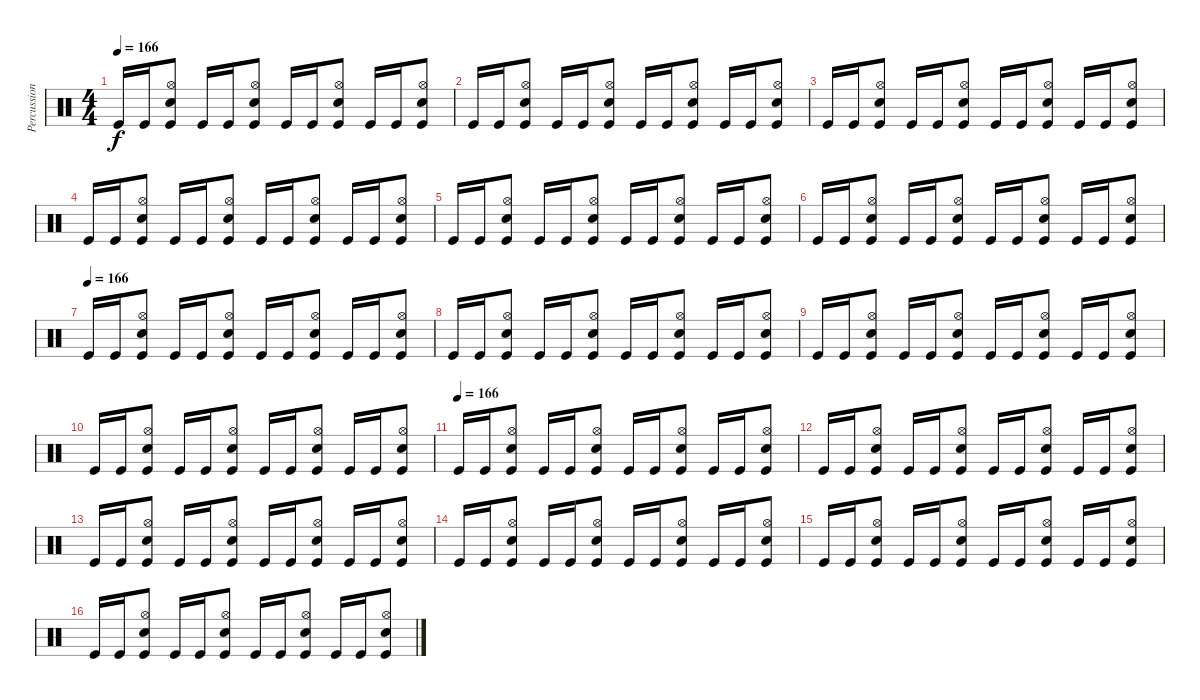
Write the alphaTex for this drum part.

\track ("Percussioni" "Percussion") {instrument percussion}
\staff {score}
\articulation defaults
\ts (4 4)
\tempo 166
\clef neutral
\ks c "Kick (hit)".16{dy f} "Kick (hit)".16
("Hi-Hat (open)" "Snare (hit) 2" "Kick (hit)").8 "Kick (hit)".16 "Kick (hit)".16 ("Hi-Hat (open)" "Snare (hit) 2" "Kick (hit)").8 "Kick (hit)".16 "Kick (hit)".16 ("Hi-Hat (open)" "Snare (hit) 2" "Kick (hit)").8 "Kick (hit)".16 "Kick (hit)".16 ("Hi-Hat (open)" "Snare (hit) 2" "Kick (hit)").8 |
"Kick (hit)".16 "Kick (hit)".16 ("Hi-Hat (open)" "Snare (hit) 2" "Kick (hit)").8 "Kick (hit)".16 "Kick (hit)".16 ("Hi-Hat (open)" "Snare (hit) 2" "Kick (hit)").8 "Kick (hit)".16 "Kick (hit)".16 ("Hi-Hat (open)" "Snare (hit) 2" "Kick (hit)").8 "Kick (hit)".16 "Kick (hit)".16 ("Hi-Hat (open)" "Snare (hit) 2" "Kick (hit)").8 |
"Kick (hit)".16 "Kick (hit)".16 ("Hi-Hat (open)" "Snare (hit) 2" "Kick (hit)").8 "Kick (hit)".16 "Kick (hit)".16 ("Hi-Hat (open)" "Snare (hit) 2" "Kick (hit)").8 "Kick (hit)".16 "Kick (hit)".16 ("Hi-Hat (open)" "Snare (hit) 2" "Kick (hit)").8 "Kick (hit)".16 "Kick (hit)".16 ("Hi-Hat (open)" "Snare (hit) 2" "Kick (hit)").8 |
"Kick (hit)".16 "Kick (hit)".16 ("Hi-Hat (open)" "Snare (hit) 2" "Kick (hit)").8 "Kick (hit)".16 "Kick (hit)".16 ("Hi-Hat (open)" "Snare (hit) 2" "Kick (hit)").8 "Kick (hit)".16 "Kick (hit)".16 ("Hi-Hat (open)" "Snare (hit) 2" "Kick (hit)").8 "Kick (hit)".16 "Kick (hit)".16 ("Hi-Hat (open)" "Snare (hit) 2" "Kick (hit)").8 |
"Kick (hit)".16 "Kick (hit)".16 ("Hi-Hat (open)" "Snare (hit) 2" "Kick (hit)").8 "Kick (hit)".16 "Kick (hit)".16 ("Hi-Hat (open)" "Snare (hit) 2" "Kick (hit)").8 "Kick (hit)".16 "Kick (hit)".16 ("Hi-Hat (open)" "Snare (hit) 2" "Kick (hit)").8 "Kick (hit)".16 "Kick (hit)".16 ("Hi-Hat (open)" "Snare (hit) 2" "Kick (hit)").8 |
"Kick (hit)".16 "Kick (hit)".16 ("Hi-Hat (open)" "Snare (hit) 2" "Kick (hit)").8 "Kick (hit)".16 "Kick (hit)".16 ("Hi-Hat (open)" "Snare (hit) 2" "Kick (hit)").8 "Kick (hit)".16 "Kick (hit)".16 ("Hi-Hat (open)" "Snare (hit) 2" "Kick (hit)").8 "Kick (hit)".16 "Kick (hit)".16 ("Hi-Hat (open)" "Snare (hit) 2" "Kick (hit)").8 |
\tempo (166)
"Kick (hit)".16 "Kick (hit)".16 ("Hi-Hat (open)" "Snare (hit) 2" "Kick (hit)").8 "Kick (hit)".16 "Kick (hit)".16 ("Hi-Hat (open)" "Snare (hit) 2" "Kick (hit)").8 "Kick (hit)".16 "Kick (hit)".16 ("Hi-Hat (open)" "Snare (hit) 2" "Kick (hit)").8 "Kick (hit)".16 "Kick (hit)".16 ("Hi-Hat (open)" "Snare (hit) 2" "Kick (hit)").8 |
"Kick (hit)".16 "Kick (hit)".16 ("Hi-Hat (open)" "Snare (hit) 2" "Kick (hit)").8 "Kick (hit)".16 "Kick (hit)".16 ("Hi-Hat (open)" "Snare (hit) 2" "Kick (hit)").8 "Kick (hit)".16 "Kick (hit)".16 ("Hi-Hat (open)" "Snare (hit) 2" "Kick (hit)").8 "Kick (hit)".16 "Kick (hit)".16 ("Hi-Hat (open)" "Snare (hit) 2" "Kick (hit)").8 |
"Kick (hit)".16 "Kick (hit)".16 ("Hi-Hat (open)" "Snare (hit) 2" "Kick (hit)").8 "Kick (hit)".16 "Kick (hit)".16 ("Hi-Hat (open)" "Snare (hit) 2" "Kick (hit)").8 "Kick (hit)".16 "Kick (hit)".16 ("Hi-Hat (open)" "Snare (hit) 2" "Kick (hit)").8 "Kick (hit)".16 "Kick (hit)".16 ("Hi-Hat (open)" "Snare (hit) 2" "Kick (hit)").8 |
"Kick (hit)".16 "Kick (hit)".16 ("Hi-Hat (open)" "Snare (hit) 2" "Kick (hit)").8 "Kick (hit)".16 "Kick (hit)".16 ("Hi-Hat (open)" "Snare (hit) 2" "Kick (hit)").8 "Kick (hit)".16 "Kick (hit)".16 ("Hi-Hat (open)" "Snare (hit) 2" "Kick (hit)").8 "Kick (hit)".16 "Kick (hit)".16 ("Hi-Hat (open)" "Snare (hit) 2" "Kick (hit)").8 |
\tempo (166)
"Kick (hit)".16 "Kick (hit)".16 ("Hi-Hat (open)" "Snare (hit) 2" "Kick (hit)").8 "Kick (hit)".16 "Kick (hit)".16 ("Hi-Hat (open)" "Snare (hit) 2" "Kick (hit)").8 "Kick (hit)".16 "Kick (hit)".16 ("Hi-Hat (open)" "Snare (hit) 2" "Kick (hit)").8 "Kick (hit)".16 "Kick (hit)".16 ("Hi-Hat (open)" "Snare (hit) 2" "Kick (hit)").8 |
"Kick (hit)".16 "Kick (hit)".16 ("Hi-Hat (open)" "Snare (hit) 2" "Kick (hit)").8 "Kick (hit)".16 "Kick (hit)".16 ("Hi-Hat (open)" "Snare (hit) 2" "Kick (hit)").8 "Kick (hit)".16 "Kick (hit)".16 ("Hi-Hat (open)" "Snare (hit) 2" "Kick (hit)").8 "Kick (hit)".16 "Kick (hit)".16 ("Hi-Hat (open)" "Snare (hit) 2" "Kick (hit)").8 |
"Kick (hit)".16 "Kick (hit)".16 ("Hi-Hat (open)" "Snare (hit) 2" "Kick (hit)").8 "Kick (hit)".16 "Kick (hit)".16 ("Hi-Hat (open)" "Snare (hit) 2" "Kick (hit)").8 "Kick (hit)".16 "Kick (hit)".16 ("Hi-Hat (open)" "Snare (hit) 2" "Kick (hit)").8 "Kick (hit)".16 "Kick (hit)".16 ("Hi-Hat (open)" "Snare (hit) 2" "Kick (hit)").8 |
"Kick (hit)".16 "Kick (hit)".16 ("Hi-Hat (open)" "Snare (hit) 2" "Kick (hit)").8 "Kick (hit)".16 "Kick (hit)".16 ("Hi-Hat (open)" "Snare (hit) 2" "Kick (hit)").8 "Kick (hit)".16 "Kick (hit)".16 ("Hi-Hat (open)" "Snare (hit) 2" "Kick (hit)").8 "Kick (hit)".16 "Kick (hit)".16 ("Hi-Hat (open)" "Snare (hit) 2" "Kick (hit)").8 |
"Kick (hit)".16 "Kick (hit)".16 ("Hi-Hat (open)" "Snare (hit) 2" "Kick (hit)").8 "Kick (hit)".16 "Kick (hit)".16 ("Hi-Hat (open)" "Snare (hit) 2" "Kick (hit)").8 "Kick (hit)".16 "Kick (hit)".16 ("Hi-Hat (open)" "Snare (hit) 2" "Kick (hit)").8 "Kick (hit)".16 "Kick (hit)".16 ("Hi-Hat (open)" "Snare (hit) 2" "Kick (hit)").8 |
"Kick (hit)".16 "Kick (hit)".16 ("Hi-Hat (open)" "Snare (hit) 2" "Kick (hit)").8 "Kick (hit)".16 "Kick (hit)".16 ("Hi-Hat (open)" "Snare (hit) 2" "Kick (hit)").8 "Kick (hit)".16 "Kick (hit)".16 ("Hi-Hat (open)" "Snare (hit) 2" "Kick (hit)").8 "Kick (hit)".16 "Kick (hit)".16 ("Hi-Hat (open)" "Snare (hit) 2" "Kick (hit)").8
